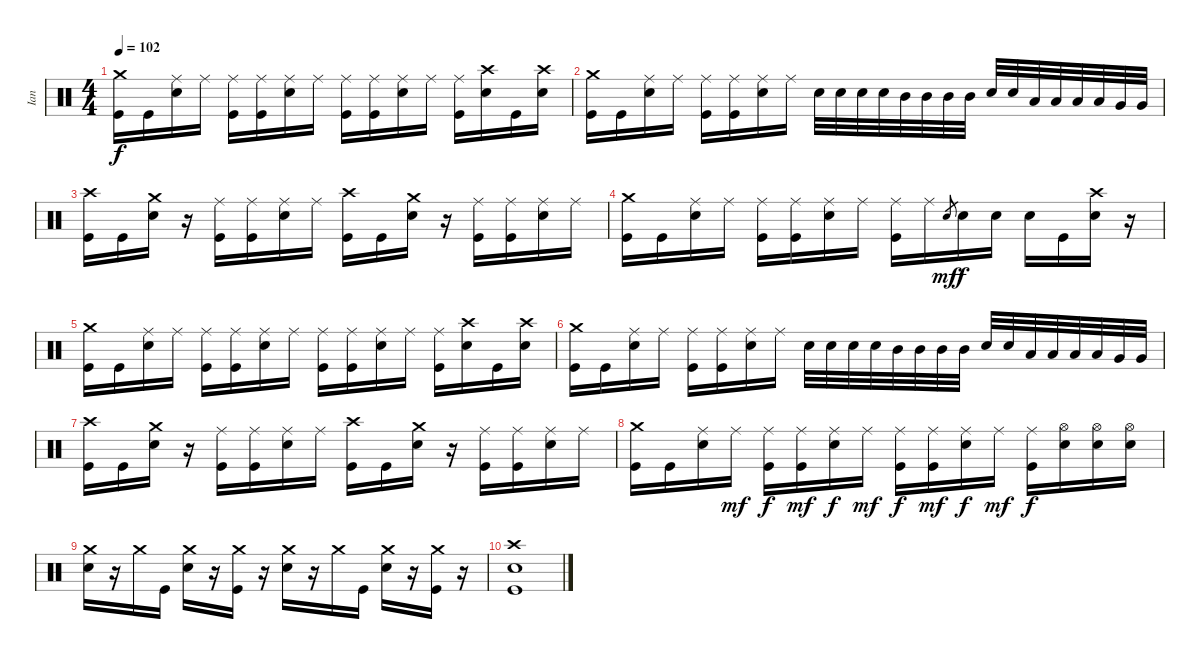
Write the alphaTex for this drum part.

\track ("Ian" "Ian") {instrument percussion}
\staff {score}
\articulation defaults
\ts (4 4)
\tempo 102
\clef neutral
\ks c
("Crash medium (hit)" "Kick (hit)").16{dy f} "Kick (hit)".16 ("Ride (middle)" "Electric Snare (hit)").16 "Ride (middle)".16 ("Ride (middle)" "Kick (hit)").16 ("Ride (middle)" "Kick (hit)").16 ("Ride (middle)" "Electric Snare (hit)").16 "Ride (middle)".16 ("Ride (middle)" "Kick (hit)").16 ("Ride (middle)" "Kick (hit)").16 ("Ride (middle)" "Electric Snare (hit)").16 "Ride (middle)".16 ("Ride (middle)" "Kick (hit)").16 ("Crash high (hit)" "Electric Snare (hit)").16 "Kick (hit)".16 ("Crash high (hit)" "Electric Snare (hit)").16 |
("Crash medium (hit)" "Kick (hit)").16 "Kick (hit)".16 ("Ride (middle)" "Electric Snare (hit)").16 "Ride (middle)".16 ("Ride (middle)" "Kick (hit)").16 ("Ride (middle)" "Kick (hit)").16 ("Ride (middle)" "Electric Snare (hit)").16 "Ride (middle)".16 "Electric Snare (hit)".32 "Electric Snare (hit)".32 "Electric Snare (hit)".32 "Electric Snare (hit)".32 "Mid Tom (hit)".32 "Mid Tom (hit)".32 "Mid Tom (hit)".32 "Mid Tom (hit)".32 "Electric Snare (hit)".32 "Electric Snare (hit)".32 "Low Tom (hit)".32 "Low Tom (hit)".32 "Low Tom (hit)".32 "Low Tom (hit)".32 "Very Low Tom (hit)".32 "Very Low Tom (hit)".32 |
("Crash high (hit)" "Kick (hit)").16 "Kick (hit)".16 ("Crash medium (hit)" "Electric Snare (hit)").16 r.16 ("Ride (middle)" "Kick (hit)").16 ("Ride (middle)" "Kick (hit)").16 ("Ride (middle)" "Electric Snare (hit)").16 "Ride (middle)".16 ("Crash high (hit)" "Kick (hit)").16 "Kick (hit)".16 ("Crash medium (hit)" "Electric Snare (hit)").16 r.16 ("Ride (middle)" "Kick (hit)").16 ("Ride (middle)" "Kick (hit)").16 ("Ride (middle)" "Electric Snare (hit)").16 "Ride (middle)".16 |
("Crash medium (hit)" "Kick (hit)").16 "Kick (hit)".16 ("Ride (middle)" "Electric Snare (hit)").16 "Ride (middle)".16 ("Ride (middle)" "Kick (hit)").16 ("Ride (middle)" "Kick (hit)").16 ("Ride (middle)" "Electric Snare (hit)").16 "Ride (middle)".16 ("Ride (middle)" "Kick (hit)").16 "Ride (middle)".16 "Electric Snare (hit)".8{gr dy mf} "Electric Snare (hit)".16{dy f} "Electric Snare (hit)".16 "Electric Snare (hit)".16 "Kick (hit)".16 ("Crash high (hit)" "Electric Snare (hit)").16 r.16 |
("Crash medium (hit)" "Kick (hit)").16 "Kick (hit)".16 ("Ride (middle)" "Electric Snare (hit)").16 "Ride (middle)".16 ("Ride (middle)" "Kick (hit)").16 ("Ride (middle)" "Kick (hit)").16 ("Ride (middle)" "Electric Snare (hit)").16 "Ride (middle)".16 ("Ride (middle)" "Kick (hit)").16 ("Ride (middle)" "Kick (hit)").16 ("Ride (middle)" "Electric Snare (hit)").16 "Ride (middle)".16 ("Ride (middle)" "Kick (hit)").16 ("Crash high (hit)" "Electric Snare (hit)").16 "Kick (hit)".16 ("Crash high (hit)" "Electric Snare (hit)").16 |
("Crash medium (hit)" "Kick (hit)").16 "Kick (hit)".16 ("Ride (middle)" "Electric Snare (hit)").16 "Ride (middle)".16 ("Ride (middle)" "Kick (hit)").16 ("Ride (middle)" "Kick (hit)").16 ("Ride (middle)" "Electric Snare (hit)").16 "Ride (middle)".16 "Electric Snare (hit)".32 "Electric Snare (hit)".32 "Electric Snare (hit)".32 "Electric Snare (hit)".32 "Mid Tom (hit)".32 "Mid Tom (hit)".32 "Mid Tom (hit)".32 "Mid Tom (hit)".32 "Electric Snare (hit)".32 "Electric Snare (hit)".32 "Low Tom (hit)".32 "Low Tom (hit)".32 "Low Tom (hit)".32 "Low Tom (hit)".32 "Very Low Tom (hit)".32 "Very Low Tom (hit)".32 |
("Crash high (hit)" "Kick (hit)").16 "Kick (hit)".16 ("Crash medium (hit)" "Electric Snare (hit)").16 r.16 ("Ride (middle)" "Kick (hit)").16 ("Ride (middle)" "Kick (hit)").16 ("Ride (middle)" "Electric Snare (hit)").16 "Ride (middle)".16 ("Crash high (hit)" "Kick (hit)").16 "Kick (hit)".16 ("Crash medium (hit)" "Electric Snare (hit)").16 r.16 ("Ride (middle)" "Kick (hit)").16 ("Ride (middle)" "Kick (hit)").16 ("Ride (middle)" "Electric Snare (hit)").16 "Ride (middle)".16 |
("Crash medium (hit)" "Kick (hit)").16 "Kick (hit)".16 ("Ride (middle)" "Electric Snare (hit)").16 "Ride (middle)".16{dy mf} ("Ride (middle)" "Kick (hit)").16{dy f} ("Ride (middle)" "Kick (hit)").16{dy mf} ("Ride (middle)" "Electric Snare (hit)").16{dy f} "Ride (middle)".16{dy mf} ("Ride (middle)" "Kick (hit)").16{dy f} ("Ride (middle)" "Kick (hit)").16{dy mf} ("Ride (middle)" "Electric Snare (hit)").16{dy f} "Ride (middle)".16{dy mf} ("Ride (middle)" "Kick (hit)").16{dy f} ("Hi-Hat (open)" "Electric Snare (hit)").16 ("Hi-Hat (open)" "Electric Snare (hit)").16 ("Hi-Hat (open)" "Electric Snare (hit)").16 |
("Crash medium (hit)" "Electric Snare (hit)").16 r.16 "Crash medium (hit)".16 "Kick (hit)".16 ("Crash medium (hit)" "Electric Snare (hit)").16 r.16 ("Crash medium (hit)" "Kick (hit)").16 r.16 ("Crash medium (hit)" "Electric Snare (hit)").16 r.16 "Crash medium (hit)".16 "Kick (hit)".16 ("Crash medium (hit)" "Electric Snare (hit)").16 r.16 ("Crash medium (hit)" "Kick (hit)").16 r.16 |
("Crash high (hit)" "Electric Snare (hit)" "Kick (hit)").1
